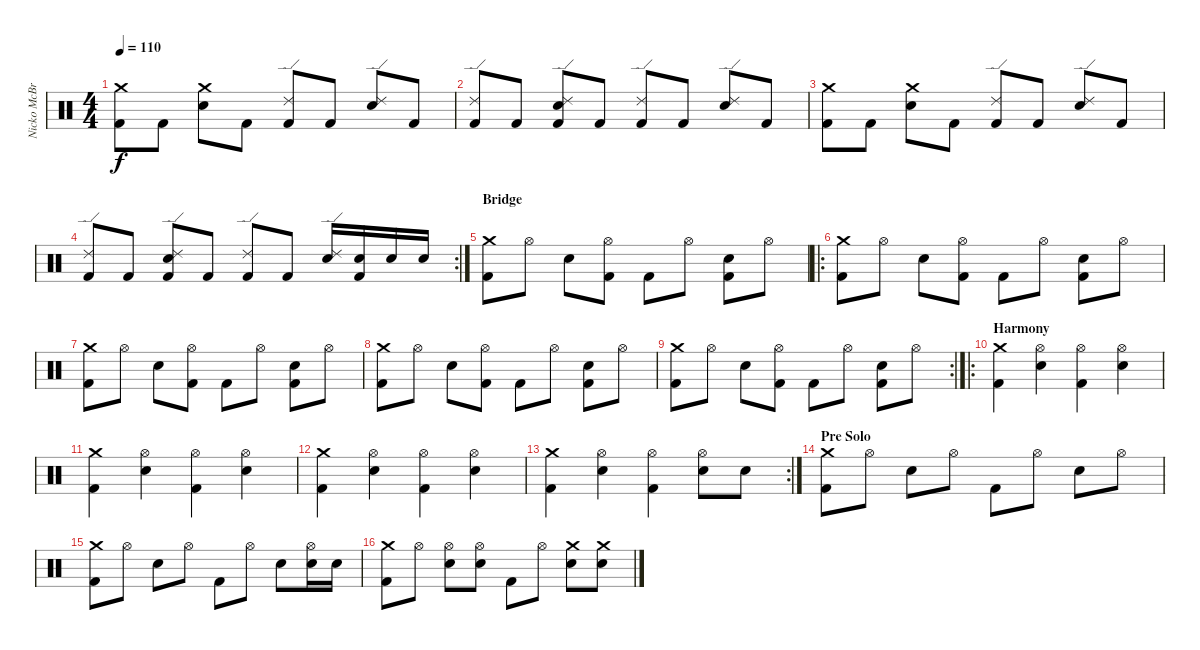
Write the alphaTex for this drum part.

\track ("Nicko McBrain" "Nicko McBr") {instrument percussion}
\staff {score}
\articulation defaults
\ts (4 4)
\tempo 110
\clef neutral
\ks c
("Crash medium (hit)" "Kick (hit) 2").8{dy f} "Kick (hit) 2".8 ("Snare (hit) 2" "Crash medium (hit)").8 "Kick (hit) 2".8 ("Ride (edge) 2" "Kick (hit) 2").8 "Kick (hit) 2".8 ("Snare (hit) 2" "Ride (edge) 2").8 "Kick (hit) 2".8 |
("Ride (edge) 2" "Kick (hit) 2").8 "Kick (hit) 2".8 ("Snare (hit) 2" "Ride (edge) 2" "Kick (hit) 2").8 "Kick (hit) 2".8 ("Ride (edge) 2" "Kick (hit) 2").8 "Kick (hit) 2".8 ("Snare (hit) 2" "Ride (edge) 2").8 "Kick (hit) 2".8 |
("Crash medium (hit)" "Kick (hit) 2").8 "Kick (hit) 2".8 ("Snare (hit) 2" "Crash medium (hit)").8 "Kick (hit) 2".8 ("Ride (edge) 2" "Kick (hit) 2").8 "Kick (hit) 2".8 ("Snare (hit) 2" "Ride (edge) 2").8 "Kick (hit) 2".8 |
\rc 2
("Ride (edge) 2" "Kick (hit) 2").8 "Kick (hit) 2".8 ("Snare (hit) 2" "Ride (edge) 2" "Kick (hit) 2").8 "Kick (hit) 2".8 ("Ride (edge) 2" "Kick (hit) 2").8 "Kick (hit) 2".8 ("Snare (hit) 2" "Ride (edge) 2").16 ("Snare (hit) 2" "Kick (hit) 2").16 "Snare (hit) 2".16 "Snare (hit) 2".16 |
\section ("" "Bridge")
("Crash medium (hit)" "Kick (hit) 2").8 "Hi-Hat (open)".8 "Snare (hit) 2".8 ("Hi-Hat (open)" "Kick (hit) 2").8 "Kick (hit) 2".8 "Hi-Hat (open)".8 ("Snare (hit) 2" "Kick (hit) 2").8 "Hi-Hat (open)".8 |
\ro
("Crash medium (hit)" "Kick (hit) 2").8 "Hi-Hat (open)".8 "Snare (hit) 2".8 ("Hi-Hat (open)" "Kick (hit) 2").8 "Kick (hit) 2".8 "Hi-Hat (open)".8 ("Snare (hit) 2" "Kick (hit) 2").8 "Hi-Hat (open)".8 |
("Crash medium (hit)" "Kick (hit) 2").8 "Hi-Hat (open)".8 "Snare (hit) 2".8 ("Hi-Hat (open)" "Kick (hit) 2").8 "Kick (hit) 2".8 "Hi-Hat (open)".8 ("Snare (hit) 2" "Kick (hit) 2").8 "Hi-Hat (open)".8 |
("Crash medium (hit)" "Kick (hit) 2").8 "Hi-Hat (open)".8 "Snare (hit) 2".8 ("Hi-Hat (open)" "Kick (hit) 2").8 "Kick (hit) 2".8 "Hi-Hat (open)".8 ("Snare (hit) 2" "Kick (hit) 2").8 "Hi-Hat (open)".8 |
\rc 2
("Crash medium (hit)" "Kick (hit) 2").8 "Hi-Hat (open)".8 "Snare (hit) 2".8 ("Hi-Hat (open)" "Kick (hit) 2").8 "Kick (hit) 2".8 "Hi-Hat (open)".8 ("Snare (hit) 2" "Kick (hit) 2").8 "Hi-Hat (open)".8 |
\ro
\section ("" "Harmony")
("Crash medium (hit)" "Kick (hit) 2").4 ("Snare (hit) 2" "Hi-Hat (open)").4 ("Hi-Hat (open)" "Kick (hit) 2").4 ("Snare (hit) 2" "Hi-Hat (open)").4 |
("Crash medium (hit)" "Kick (hit) 2").4 ("Snare (hit) 2" "Hi-Hat (open)").4 ("Hi-Hat (open)" "Kick (hit) 2").4 ("Snare (hit) 2" "Hi-Hat (open)").4 |
("Crash medium (hit)" "Kick (hit) 2").4 ("Snare (hit) 2" "Hi-Hat (open)").4 ("Hi-Hat (open)" "Kick (hit) 2").4 ("Snare (hit) 2" "Hi-Hat (open)").4 |
\rc 2
("Crash medium (hit)" "Kick (hit) 2").4 ("Snare (hit) 2" "Hi-Hat (open)").4 ("Hi-Hat (open)" "Kick (hit) 2").4 ("Snare (hit) 2" "Hi-Hat (open)").8 "Snare (hit) 2".8 |
\section ("" "Pre Solo")
("Crash medium (hit)" "Kick (hit) 2").8 "Hi-Hat (open)".8 "Snare (hit) 2".8 "Hi-Hat (open)".8 "Kick (hit) 2".8 "Hi-Hat (open)".8 "Snare (hit) 2".8 "Hi-Hat (open)".8 |
("Crash medium (hit)" "Kick (hit) 2").8 "Hi-Hat (open)".8 "Snare (hit) 2".8 "Hi-Hat (open)".8 "Kick (hit) 2".8 "Hi-Hat (open)".8 "Snare (hit) 2".8 ("Snare (hit) 2" "Hi-Hat (open)").16 "Snare (hit) 2".16 |
("Crash medium (hit)" "Kick (hit) 2").8 "Hi-Hat (open)".8 ("Snare (hit) 2" "Hi-Hat (open)").8 ("Snare (hit) 2" "Hi-Hat (open)").8 "Kick (hit) 2".8 "Hi-Hat (open)".8 ("Snare (hit) 2" "Crash medium (hit)").8 ("Snare (hit) 2" "Crash medium (hit)").8
